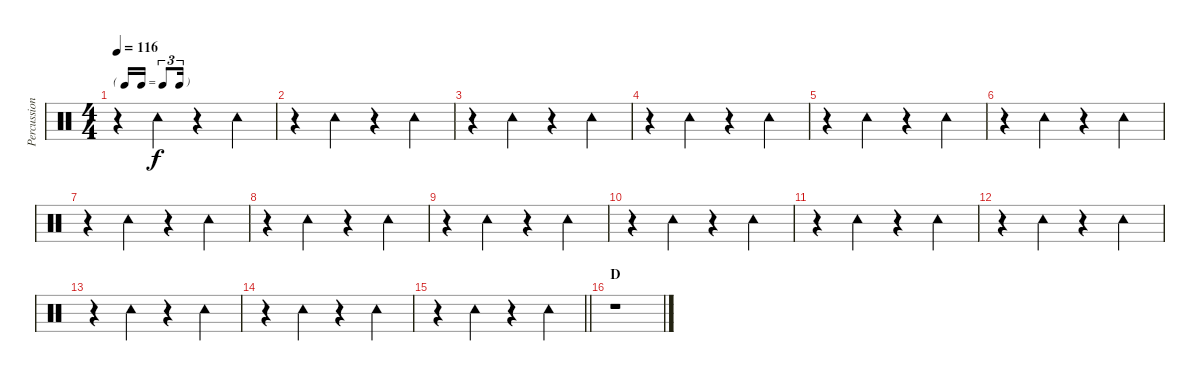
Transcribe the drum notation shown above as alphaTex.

\track ("Percussion" "Percussion") {instrument percussion}
\staff {score}
\articulation defaults
\ts (4 4)
\tf triplet16th
\tempo 116
\clef neutral
\ks c
r.4{dy f} "Tambourine (hit)".4 r.4 "Tambourine (hit)".4 |
r.4 "Tambourine (hit)".4 r.4 "Tambourine (hit)".4 |
r.4 "Tambourine (hit)".4 r.4 "Tambourine (hit)".4 |
r.4 "Tambourine (hit)".4 r.4 "Tambourine (hit)".4 |
r.4 "Tambourine (hit)".4 r.4 "Tambourine (hit)".4 |
r.4 "Tambourine (hit)".4 r.4 "Tambourine (hit)".4 |
r.4 "Tambourine (hit)".4 r.4 "Tambourine (hit)".4 |
r.4 "Tambourine (hit)".4 r.4 "Tambourine (hit)".4 |
r.4 "Tambourine (hit)".4 r.4 "Tambourine (hit)".4 |
r.4 "Tambourine (hit)".4 r.4 "Tambourine (hit)".4 |
r.4 "Tambourine (hit)".4 r.4 "Tambourine (hit)".4 |
r.4 "Tambourine (hit)".4 r.4 "Tambourine (hit)".4 |
r.4 "Tambourine (hit)".4 r.4 "Tambourine (hit)".4 |
r.4 "Tambourine (hit)".4 r.4 "Tambourine (hit)".4 |
\barLineRight lightlight
r.4 "Tambourine (hit)".4 r.4 "Tambourine (hit)".4 |
\section ("" "D")
r.1
